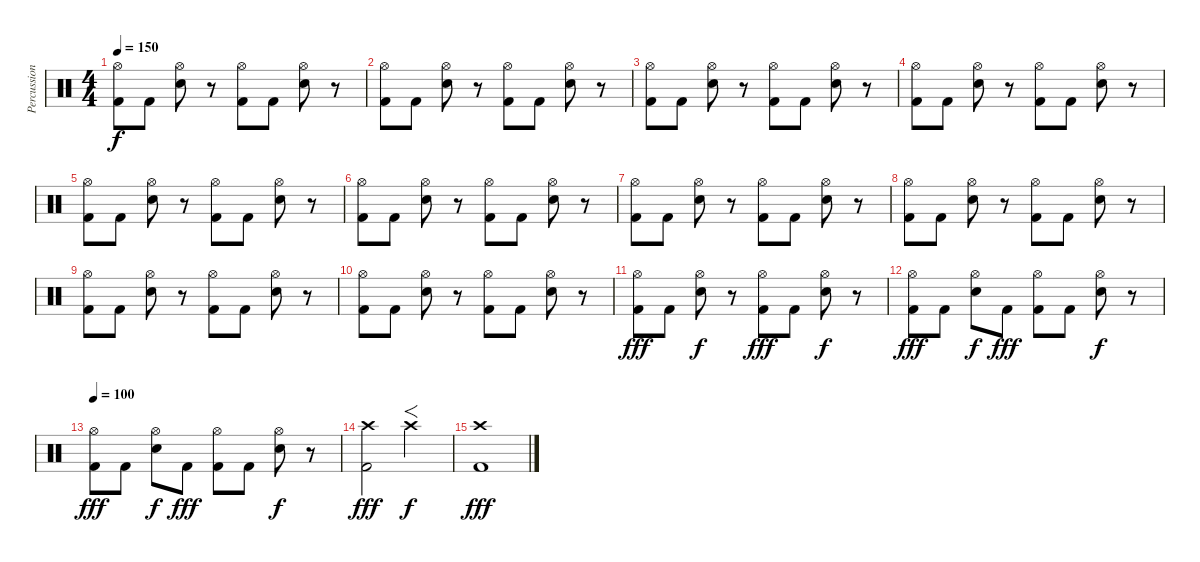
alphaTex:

\track ("Percussion" "Percussion") {instrument percussion}
\staff {score}
\articulation defaults
\ts (4 4)
\tempo 150
\clef neutral
\ks c
("Hi-Hat (open)" "Kick (hit) 2").8{dy f} "Kick (hit) 2".8 ("Hi-Hat (open)" "Electric Snare (hit)").8 r.8 ("Hi-Hat (open)" "Kick (hit) 2").8 "Kick (hit) 2".8 ("Hi-Hat (open)" "Electric Snare (hit)").8 r.8 |
("Hi-Hat (open)" "Kick (hit) 2").8 "Kick (hit) 2".8 ("Hi-Hat (open)" "Electric Snare (hit)").8 r.8 ("Hi-Hat (open)" "Kick (hit) 2").8 "Kick (hit) 2".8 ("Hi-Hat (open)" "Electric Snare (hit)").8 r.8 |
("Hi-Hat (open)" "Kick (hit) 2").8 "Kick (hit) 2".8 ("Hi-Hat (open)" "Electric Snare (hit)").8 r.8 ("Hi-Hat (open)" "Kick (hit) 2").8 "Kick (hit) 2".8 ("Hi-Hat (open)" "Electric Snare (hit)").8 r.8 |
("Hi-Hat (open)" "Kick (hit) 2").8 "Kick (hit) 2".8 ("Hi-Hat (open)" "Electric Snare (hit)").8 r.8 ("Hi-Hat (open)" "Kick (hit) 2").8 "Kick (hit) 2".8 ("Hi-Hat (open)" "Electric Snare (hit)").8 r.8 |
("Hi-Hat (open)" "Kick (hit) 2").8 "Kick (hit) 2".8 ("Hi-Hat (open)" "Electric Snare (hit)").8 r.8 ("Hi-Hat (open)" "Kick (hit) 2").8 "Kick (hit) 2".8 ("Hi-Hat (open)" "Electric Snare (hit)").8 r.8 |
("Hi-Hat (open)" "Kick (hit) 2").8 "Kick (hit) 2".8 ("Hi-Hat (open)" "Electric Snare (hit)").8 r.8 ("Hi-Hat (open)" "Kick (hit) 2").8 "Kick (hit) 2".8 ("Hi-Hat (open)" "Electric Snare (hit)").8 r.8 |
("Hi-Hat (open)" "Kick (hit) 2").8 "Kick (hit) 2".8 ("Hi-Hat (open)" "Electric Snare (hit)").8 r.8 ("Hi-Hat (open)" "Kick (hit) 2").8 "Kick (hit) 2".8 ("Hi-Hat (open)" "Electric Snare (hit)").8 r.8 |
("Hi-Hat (open)" "Kick (hit) 2").8 "Kick (hit) 2".8 ("Hi-Hat (open)" "Electric Snare (hit)").8 r.8 ("Hi-Hat (open)" "Kick (hit) 2").8 "Kick (hit) 2".8 ("Hi-Hat (open)" "Electric Snare (hit)").8 r.8 |
("Hi-Hat (open)" "Kick (hit) 2").8 "Kick (hit) 2".8 ("Hi-Hat (open)" "Electric Snare (hit)").8 r.8 ("Hi-Hat (open)" "Kick (hit) 2").8 "Kick (hit) 2".8 ("Hi-Hat (open)" "Electric Snare (hit)").8 r.8 |
("Hi-Hat (open)" "Kick (hit) 2").8 "Kick (hit) 2".8 ("Hi-Hat (open)" "Electric Snare (hit)").8 r.8 ("Hi-Hat (open)" "Kick (hit) 2").8 "Kick (hit) 2".8 ("Hi-Hat (open)" "Electric Snare (hit)").8 r.8 |
("Hi-Hat (open)" "Kick (hit) 2").8{dy fff} "Kick (hit) 2".8 ("Hi-Hat (open)" "Electric Snare (hit)").8{dy f} r.8 ("Hi-Hat (open)" "Kick (hit) 2").8{dy fff} "Kick (hit) 2".8 ("Hi-Hat (open)" "Electric Snare (hit)").8{dy f} r.8 |
("Hi-Hat (open)" "Kick (hit) 2").8{dy fff} "Kick (hit) 2".8 ("Hi-Hat (open)" "Electric Snare (hit)").8{dy f} "Kick (hit) 2".8{dy fff} ("Hi-Hat (open)" "Kick (hit) 2").8 "Kick (hit) 2".8 ("Hi-Hat (open)" "Electric Snare (hit)").8{dy f} r.8 |
\tempo 100
("Hi-Hat (open)" "Kick (hit) 2").8{dy fff} "Kick (hit) 2".8 ("Hi-Hat (open)" "Electric Snare (hit)").8{dy f} "Kick (hit) 2".8{dy fff} ("Hi-Hat (open)" "Kick (hit) 2").8 "Kick (hit) 2".8 ("Hi-Hat (open)" "Electric Snare (hit)").8{dy f} r.8 |
("Crash high (hit)" "Kick (hit) 2").2{dy fff} "Crash high (hit)".2{f dy f} |
("Crash high (hit)" "Kick (hit) 2").1{dy fff}
